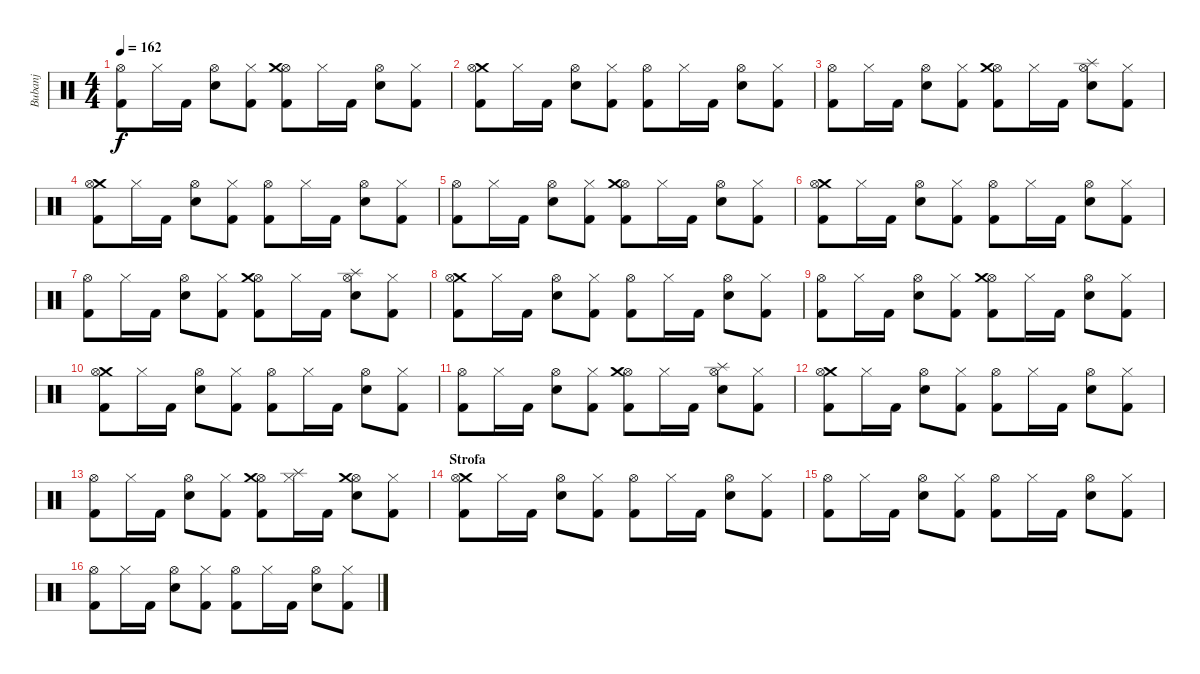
\track ("Bubanj" "Bubanj") {instrument percussion}
\staff {score}
\articulation defaults
\ts (4 4)
\tempo 162
\clef neutral
\ks c
("Hi-Hat (open)" "Kick (hit) 2").8{dy f} "Hi-Hat (closed)".16 "Kick (hit) 2".16 ("Hi-Hat (open)" "Snare (hit) 2").8 ("Hi-Hat (closed)" "Kick (hit) 2").8 ("Hi-Hat (open)" "Kick (hit) 2" "Crash medium (hit)").8 "Hi-Hat (closed)".16 "Kick (hit) 2".16 ("Hi-Hat (open)" "Snare (hit) 2").8 ("Hi-Hat (closed)" "Kick (hit) 2").8 |
("Crash medium (hit)" "Kick (hit) 2" "Hi-Hat (open)").8 "Hi-Hat (closed)".16 "Kick (hit) 2".16 ("Hi-Hat (open)" "Snare (hit) 2").8 ("Hi-Hat (closed)" "Kick (hit) 2").8 ("Hi-Hat (open)" "Kick (hit) 2").8 "Hi-Hat (closed)".16 "Kick (hit) 2".16 ("Hi-Hat (open)" "Snare (hit) 2").8 ("Hi-Hat (closed)" "Kick (hit) 2").8 |
("Hi-Hat (open)" "Kick (hit) 2").8 "Hi-Hat (closed)".16 "Kick (hit) 2".16 ("Hi-Hat (open)" "Snare (hit) 2").8 ("Hi-Hat (closed)" "Kick (hit) 2").8 ("Hi-Hat (open)" "Kick (hit) 2" "Crash medium (hit)").8 "Hi-Hat (closed)".16 "Kick (hit) 2".16 ("Hi-Hat (open)" "Snare (hit) 2" "Splash (hit)").8 ("Hi-Hat (closed)" "Kick (hit) 2").8 |
("Crash medium (hit)" "Kick (hit) 2" "Hi-Hat (open)").8 "Hi-Hat (closed)".16 "Kick (hit) 2".16 ("Hi-Hat (open)" "Snare (hit) 2").8 ("Hi-Hat (closed)" "Kick (hit) 2").8 ("Hi-Hat (open)" "Kick (hit) 2").8 "Hi-Hat (closed)".16 "Kick (hit) 2".16 ("Hi-Hat (open)" "Snare (hit) 2").8 ("Hi-Hat (closed)" "Kick (hit) 2").8 |
("Hi-Hat (open)" "Kick (hit) 2").8 "Hi-Hat (closed)".16 "Kick (hit) 2".16 ("Hi-Hat (open)" "Snare (hit) 2").8 ("Hi-Hat (closed)" "Kick (hit) 2").8 ("Hi-Hat (open)" "Kick (hit) 2" "Crash medium (hit)").8 "Hi-Hat (closed)".16 "Kick (hit) 2".16 ("Hi-Hat (open)" "Snare (hit) 2").8 ("Hi-Hat (closed)" "Kick (hit) 2").8 |
("Crash medium (hit)" "Kick (hit) 2" "Hi-Hat (open)").8 "Hi-Hat (closed)".16 "Kick (hit) 2".16 ("Hi-Hat (open)" "Snare (hit) 2").8 ("Hi-Hat (closed)" "Kick (hit) 2").8 ("Hi-Hat (open)" "Kick (hit) 2").8 "Hi-Hat (closed)".16 "Kick (hit) 2".16 ("Hi-Hat (open)" "Snare (hit) 2").8 ("Hi-Hat (closed)" "Kick (hit) 2").8 |
("Hi-Hat (open)" "Kick (hit) 2").8 "Hi-Hat (closed)".16 "Kick (hit) 2".16 ("Hi-Hat (open)" "Snare (hit) 2").8 ("Hi-Hat (closed)" "Kick (hit) 2").8 ("Hi-Hat (open)" "Kick (hit) 2" "Crash medium (hit)").8 "Hi-Hat (closed)".16 "Kick (hit) 2".16 ("Hi-Hat (open)" "Snare (hit) 2" "Splash (hit)").8 ("Hi-Hat (closed)" "Kick (hit) 2").8 |
("Crash medium (hit)" "Kick (hit) 2" "Hi-Hat (open)").8 "Hi-Hat (closed)".16 "Kick (hit) 2".16 ("Hi-Hat (open)" "Snare (hit) 2").8 ("Hi-Hat (closed)" "Kick (hit) 2").8 ("Hi-Hat (open)" "Kick (hit) 2").8 "Hi-Hat (closed)".16 "Kick (hit) 2".16 ("Hi-Hat (open)" "Snare (hit) 2").8 ("Hi-Hat (closed)" "Kick (hit) 2").8 |
("Hi-Hat (open)" "Kick (hit) 2").8 "Hi-Hat (closed)".16 "Kick (hit) 2".16 ("Hi-Hat (open)" "Snare (hit) 2").8 ("Hi-Hat (closed)" "Kick (hit) 2").8 ("Hi-Hat (open)" "Kick (hit) 2" "Crash medium (hit)").8 "Hi-Hat (closed)".16 "Kick (hit) 2".16 ("Hi-Hat (open)" "Snare (hit) 2").8 ("Hi-Hat (closed)" "Kick (hit) 2").8 |
("Crash medium (hit)" "Kick (hit) 2" "Hi-Hat (open)").8 "Hi-Hat (closed)".16 "Kick (hit) 2".16 ("Hi-Hat (open)" "Snare (hit) 2").8 ("Hi-Hat (closed)" "Kick (hit) 2").8 ("Hi-Hat (open)" "Kick (hit) 2").8 "Hi-Hat (closed)".16 "Kick (hit) 2".16 ("Hi-Hat (open)" "Snare (hit) 2").8 ("Hi-Hat (closed)" "Kick (hit) 2").8 |
("Hi-Hat (open)" "Kick (hit) 2").8 "Hi-Hat (closed)".16 "Kick (hit) 2".16 ("Hi-Hat (open)" "Snare (hit) 2").8 ("Hi-Hat (closed)" "Kick (hit) 2").8 ("Hi-Hat (open)" "Kick (hit) 2" "Crash medium (hit)").8 "Hi-Hat (closed)".16 "Kick (hit) 2".16 ("Hi-Hat (open)" "Snare (hit) 2" "Splash (hit)").8 ("Hi-Hat (closed)" "Kick (hit) 2").8 |
("Crash medium (hit)" "Kick (hit) 2" "Hi-Hat (open)").8 "Hi-Hat (closed)".16 "Kick (hit) 2".16 ("Hi-Hat (open)" "Snare (hit) 2").8 ("Hi-Hat (closed)" "Kick (hit) 2").8 ("Hi-Hat (open)" "Kick (hit) 2").8 "Hi-Hat (closed)".16 "Kick (hit) 2".16 ("Hi-Hat (open)" "Snare (hit) 2").8 ("Hi-Hat (closed)" "Kick (hit) 2").8 |
("Hi-Hat (open)" "Kick (hit) 2").8 "Hi-Hat (closed)".16 "Kick (hit) 2".16 ("Hi-Hat (open)" "Snare (hit) 2").8 ("Hi-Hat (closed)" "Kick (hit) 2").8 ("Hi-Hat (open)" "Kick (hit) 2" "Crash medium (hit)").8 ("Hi-Hat (closed)" "Splash (hit)").16 "Kick (hit) 2".16 ("Hi-Hat (open)" "Snare (hit) 2" "Crash medium (hit)").8 ("Hi-Hat (closed)" "Kick (hit) 2").8 |
\section ("" "Strofa")
("Crash medium (hit)" "Kick (hit) 2" "Hi-Hat (open)").8 "Hi-Hat (closed)".16 "Kick (hit) 2".16 ("Hi-Hat (open)" "Snare (hit) 2").8 ("Hi-Hat (closed)" "Kick (hit) 2").8 ("Hi-Hat (open)" "Kick (hit) 2").8 "Hi-Hat (closed)".16 "Kick (hit) 2".16 ("Hi-Hat (open)" "Snare (hit) 2").8 ("Hi-Hat (closed)" "Kick (hit) 2").8 |
("Hi-Hat (open)" "Kick (hit) 2").8 "Hi-Hat (closed)".16 "Kick (hit) 2".16 ("Hi-Hat (open)" "Snare (hit) 2").8 ("Hi-Hat (closed)" "Kick (hit) 2").8 ("Hi-Hat (open)" "Kick (hit) 2").8 "Hi-Hat (closed)".16 "Kick (hit) 2".16 ("Hi-Hat (open)" "Snare (hit) 2").8 ("Hi-Hat (closed)" "Kick (hit) 2").8 |
("Hi-Hat (open)" "Kick (hit) 2").8 "Hi-Hat (closed)".16 "Kick (hit) 2".16 ("Hi-Hat (open)" "Snare (hit) 2").8 ("Hi-Hat (closed)" "Kick (hit) 2").8 ("Hi-Hat (open)" "Kick (hit) 2").8 "Hi-Hat (closed)".16 "Kick (hit) 2".16 ("Hi-Hat (open)" "Snare (hit) 2").8 ("Hi-Hat (closed)" "Kick (hit) 2").8
